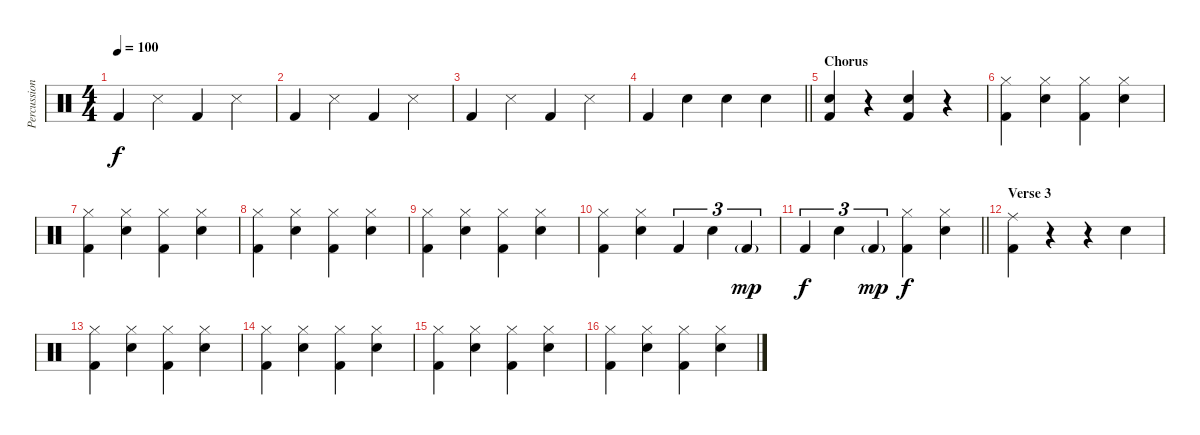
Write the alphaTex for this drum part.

\track ("Percussion" "Percussion") {instrument percussion}
\staff {score}
\articulation defaults
\ts (4 4)
\tempo 100
\clef neutral
\ks c "Kick (hit) 2".4{dy f} "Snare (side stick) 3".4 "Kick (hit) 2".4 "Snare (side stick) 3".4
|
"Kick (hit) 2".4 "Snare (side stick) 3".4 "Kick (hit) 2".4 "Snare (side stick) 3".4 |
"Kick (hit) 2".4 "Snare (side stick) 3".4 "Kick (hit) 2".4 "Snare (side stick) 3".4 |
\barLineRight lightlight "Kick (hit) 2".4 "Snare (hit) 2".4 "Snare (hit) 2".4 "Snare (hit) 2".4
|
\section ("" "Chorus")
("Snare (hit) 2" "Kick (hit) 2").4 r.4 ("Snare (hit) 2" "Kick (hit) 2").4 r.4 |
("Hi-Hat (closed)" "Kick (hit) 2").4 ("Hi-Hat (closed)" "Snare (hit) 2").4 ("Hi-Hat (closed)" "Kick (hit) 2").4 ("Hi-Hat (closed)" "Snare (hit) 2").4 |
("Hi-Hat (closed)" "Kick (hit) 2").4 ("Hi-Hat (closed)" "Snare (hit) 2").4 ("Hi-Hat (closed)" "Kick (hit) 2").4 ("Hi-Hat (closed)" "Snare (hit) 2").4 |
("Hi-Hat (closed)" "Kick (hit) 2").4 ("Hi-Hat (closed)" "Snare (hit) 2").4 ("Hi-Hat (closed)" "Kick (hit) 2").4 ("Hi-Hat (closed)" "Snare (hit) 2").4 |
("Hi-Hat (closed)" "Kick (hit) 2").4 ("Hi-Hat (closed)" "Snare (hit) 2").4 ("Hi-Hat (closed)" "Kick (hit) 2").4 ("Hi-Hat (closed)" "Snare (hit) 2").4 |
("Hi-Hat (closed)" "Kick (hit) 2").4 ("Hi-Hat (closed)" "Snare (hit) 2").4 "Kick (hit) 2".4{tu (3 2)} "Snare (hit) 2".4{tu (3 2)} "Kick (hit) 2"{g}.4{tu (3 2) dy mp} |
\barLineRight lightlight "Kick (hit) 2".4{tu (3 2) dy f} "Snare (hit) 2".4{tu (3 2)} "Kick (hit) 2"{g}.4{tu (3 2) dy mp}
("Hi-Hat (closed)" "Kick (hit) 2").4{dy f} ("Hi-Hat (closed)" "Snare (hit) 2").4 |
\section ("" "Verse 3")
("Ride (middle)" "Kick (hit) 2").4 r.4 r.4 "Snare (hit) 2".4 |
("Hi-Hat (closed)" "Kick (hit) 2").4 ("Hi-Hat (closed)" "Snare (hit) 2").4 ("Hi-Hat (closed)" "Kick (hit) 2").4 ("Hi-Hat (closed)" "Snare (hit) 2").4 |
("Hi-Hat (closed)" "Kick (hit) 2").4 ("Hi-Hat (closed)" "Snare (hit) 2").4 ("Hi-Hat (closed)" "Kick (hit) 2").4 ("Hi-Hat (closed)" "Snare (hit) 2").4 |
("Hi-Hat (closed)" "Kick (hit) 2").4 ("Hi-Hat (closed)" "Snare (hit) 2").4 ("Hi-Hat (closed)" "Kick (hit) 2").4 ("Hi-Hat (closed)" "Snare (hit) 2").4 |
("Hi-Hat (closed)" "Kick (hit) 2").4 ("Hi-Hat (closed)" "Snare (hit) 2").4 ("Hi-Hat (closed)" "Kick (hit) 2").4 ("Hi-Hat (closed)" "Snare (hit) 2").4
